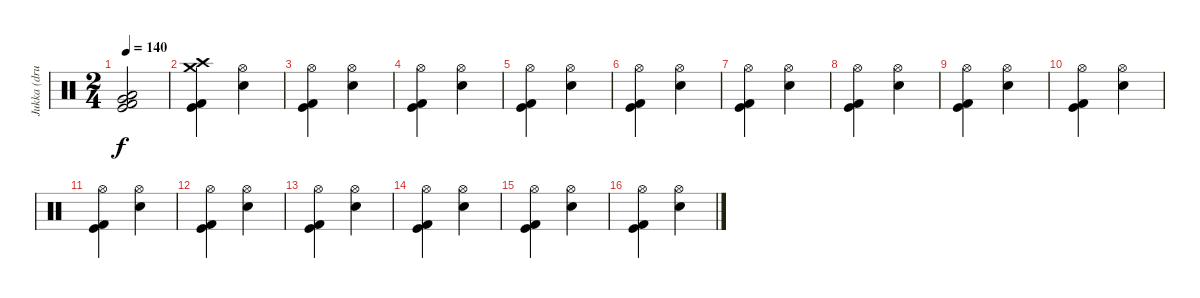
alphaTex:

\track ("Jukka (drums)" "Jukka (dru") {instrument percussion}
\staff {score}
\articulation defaults
\ts (2 4)
\tempo 140
\clef neutral
\ks c
("Very Low Tom (hit)" "Low Tom (hit)" "Kick (hit)" "Kick (hit) 2").2{dy f} |
("Kick (hit)" "Kick (hit) 2" "Crash high (hit)" "Crash medium (hit)").4 ("Electric Snare (hit)" "Hi-Hat (open)").4 |
("Kick (hit)" "Kick (hit) 2" "Hi-Hat (open)").4 ("Electric Snare (hit)" "Hi-Hat (open)").4 |
("Kick (hit)" "Kick (hit) 2" "Hi-Hat (open)").4 ("Electric Snare (hit)" "Hi-Hat (open)").4 |
("Kick (hit)" "Kick (hit) 2" "Hi-Hat (open)").4 ("Electric Snare (hit)" "Hi-Hat (open)").4 |
("Kick (hit)" "Kick (hit) 2" "Hi-Hat (open)").4 ("Electric Snare (hit)" "Hi-Hat (open)").4 |
("Kick (hit)" "Kick (hit) 2" "Hi-Hat (open)").4 ("Electric Snare (hit)" "Hi-Hat (open)").4 |
("Kick (hit)" "Kick (hit) 2" "Hi-Hat (open)").4 ("Electric Snare (hit)" "Hi-Hat (open)").4 |
("Kick (hit)" "Kick (hit) 2" "Hi-Hat (open)").4 ("Electric Snare (hit)" "Hi-Hat (open)").4 |
("Kick (hit)" "Kick (hit) 2" "Hi-Hat (open)").4 ("Electric Snare (hit)" "Hi-Hat (open)").4 |
("Kick (hit)" "Kick (hit) 2" "Hi-Hat (open)").4 ("Electric Snare (hit)" "Hi-Hat (open)").4 |
("Kick (hit)" "Kick (hit) 2" "Hi-Hat (open)").4 ("Electric Snare (hit)" "Hi-Hat (open)").4 |
("Kick (hit)" "Kick (hit) 2" "Hi-Hat (open)").4 ("Electric Snare (hit)" "Hi-Hat (open)").4 |
("Kick (hit)" "Kick (hit) 2" "Hi-Hat (open)").4 ("Electric Snare (hit)" "Hi-Hat (open)").4 |
("Kick (hit)" "Kick (hit) 2" "Hi-Hat (open)").4 ("Electric Snare (hit)" "Hi-Hat (open)").4 |
("Kick (hit)" "Kick (hit) 2" "Hi-Hat (open)").4 ("Electric Snare (hit)" "Hi-Hat (open)").4
